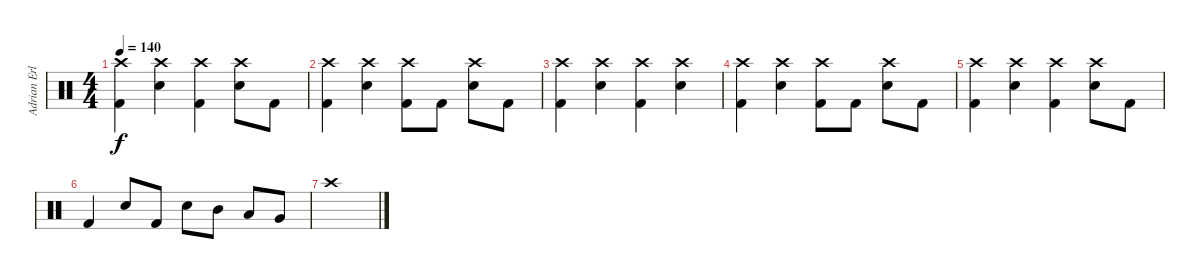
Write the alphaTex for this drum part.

\track ("Adrian Erlandsson" "Adrian Erl") {instrument percussion}
\staff {score}
\articulation defaults
\ts (4 4)
\tempo 140
\clef neutral
\ks c
("Crash high (hit)" "Kick (hit) 2").4{dy f} ("Crash high (hit)" "Snare (hit) 2").4 ("Crash high (hit)" "Kick (hit) 2").4 ("Crash high (hit)" "Snare (hit) 2").8 "Kick (hit) 2".8 |
("Crash high (hit)" "Kick (hit) 2").4 ("Crash high (hit)" "Snare (hit) 2").4 ("Crash high (hit)" "Kick (hit) 2").8 "Kick (hit) 2".8 ("Crash high (hit)" "Snare (hit) 2").8 "Kick (hit) 2".8 |
("Crash high (hit)" "Kick (hit) 2").4 ("Crash high (hit)" "Snare (hit) 2").4 ("Crash high (hit)" "Kick (hit) 2").4 ("Crash high (hit)" "Snare (hit) 2").4 |
("Crash high (hit)" "Kick (hit) 2").4 ("Crash high (hit)" "Snare (hit) 2").4 ("Crash high (hit)" "Kick (hit) 2").8 "Kick (hit) 2".8 ("Crash high (hit)" "Snare (hit) 2").8 "Kick (hit) 2".8 |
("Crash high (hit)" "Kick (hit) 2").4 ("Crash high (hit)" "Snare (hit) 2").4 ("Crash high (hit)" "Kick (hit) 2").4 ("Crash high (hit)" "Snare (hit) 2").8 "Kick (hit) 2".8 |
"Kick (hit) 2".4 "Snare (hit) 2".8 "Kick (hit) 2".8 "Snare (hit) 2".8 "Mid Tom (hit)".8 "Low Tom (hit)".8 "Very Low Tom (hit)".8 |
"Crash high (hit)".1
